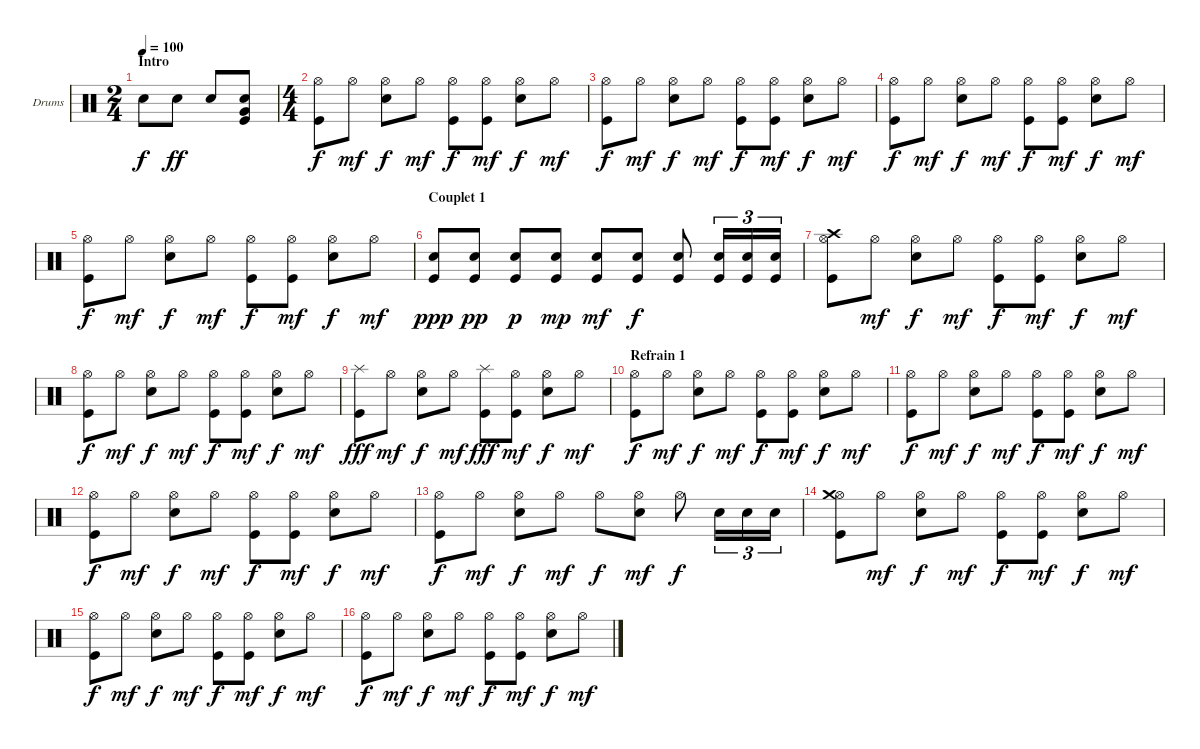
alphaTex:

\bracketExtendMode groupsimilarinstruments
\firstSystemTrackNameOrientation horizontal
\otherSystemsTrackNameOrientation horizontal
\track ("Drumkit" "Drums") {instrument percussion}
\staff {score}
\articulation defaults
\ts (2 4)
\section ("" "Intro")
\tempo 100
\clef neutral
\ks c "Snare (hit) 2".8{dy f} "Snare (hit) 2".8{dy ff} "Snare (hit) 2".8
("Snare (hit) 2" "Very Low Tom (hit)" "Kick (hit)").8 |
\ts (4 4)
("Hi-Hat (open)" "Kick (hit)").8{dy f} "Hi-Hat (open)".8{dy mf} ("Hi-Hat (open)" "Snare (hit) 2").8{dy f} "Hi-Hat (open)".8{dy mf} ("Hi-Hat (open)" "Kick (hit)").8{dy f} ("Hi-Hat (open)" "Kick (hit)").8{dy mf} ("Hi-Hat (open)" "Snare (hit) 2").8{dy f} "Hi-Hat (open)".8{dy mf} |
("Hi-Hat (open)" "Kick (hit)").8{dy f} "Hi-Hat (open)".8{dy mf} ("Hi-Hat (open)" "Snare (hit) 2").8{dy f} "Hi-Hat (open)".8{dy mf} ("Hi-Hat (open)" "Kick (hit)").8{dy f} ("Hi-Hat (open)" "Kick (hit)").8{dy mf} ("Hi-Hat (open)" "Snare (hit) 2").8{dy f} "Hi-Hat (open)".8{dy mf} |
("Hi-Hat (open)" "Kick (hit)").8{dy f} "Hi-Hat (open)".8{dy mf} ("Hi-Hat (open)" "Snare (hit) 2").8{dy f} "Hi-Hat (open)".8{dy mf} ("Hi-Hat (open)" "Kick (hit)").8{dy f} ("Hi-Hat (open)" "Kick (hit)").8{dy mf} ("Hi-Hat (open)" "Snare (hit) 2").8{dy f} "Hi-Hat (open)".8{dy mf} |
("Hi-Hat (open)" "Kick (hit)").8{dy f} "Hi-Hat (open)".8{dy mf} ("Hi-Hat (open)" "Snare (hit) 2").8{dy f} "Hi-Hat (open)".8{dy mf} ("Hi-Hat (open)" "Kick (hit)").8{dy f} ("Hi-Hat (open)" "Kick (hit)").8{dy mf} ("Hi-Hat (open)" "Snare (hit) 2").8{dy f} "Hi-Hat (open)".8{dy mf} |
\section ("" "Couplet 1")
("Snare (hit) 2" "Kick (hit)").8{dy ppp} ("Snare (hit) 2" "Kick (hit)").8{dy pp} ("Snare (hit) 2" "Kick (hit)").8{dy p} ("Snare (hit) 2" "Kick (hit)").8{dy mp} ("Snare (hit) 2" "Kick (hit)").8{dy mf} ("Snare (hit) 2" "Kick (hit)").8{dy f} ("Snare (hit) 2" "Kick (hit)").8 ("Snare (hit) 2" "Kick (hit)").16{tu (3 2)} ("Snare (hit) 2" "Kick (hit)").16{tu (3 2)} ("Snare (hit) 2" "Kick (hit)").16{tu (3 2)} |
("Hi-Hat (open)" "Crash high (hit)" "Kick (hit)").8 "Hi-Hat (open)".8{dy mf} ("Hi-Hat (open)" "Snare (hit) 2").8{dy f} "Hi-Hat (open)".8{dy mf} ("Hi-Hat (open)" "Kick (hit)").8{dy f} ("Hi-Hat (open)" "Kick (hit)").8{dy mf} ("Hi-Hat (open)" "Snare (hit) 2").8{dy f} "Hi-Hat (open)".8{dy mf} |
("Hi-Hat (open)" "Kick (hit)").8{dy f} "Hi-Hat (open)".8{dy mf} ("Hi-Hat (open)" "Snare (hit) 2").8{dy f} "Hi-Hat (open)".8{dy mf} ("Hi-Hat (open)" "Kick (hit)").8{dy f} ("Hi-Hat (open)" "Kick (hit)").8{dy mf} ("Hi-Hat (open)" "Snare (hit) 2").8{dy f} "Hi-Hat (open)".8{dy mf} |
("Splash (hit)" "Kick (hit)").8{dy fff} "Hi-Hat (open)".8{dy mf} ("Hi-Hat (open)" "Snare (hit) 2").8{dy f} "Hi-Hat (open)".8{dy mf} ("Splash (hit)" "Kick (hit)").8{dy fff} ("Hi-Hat (open)" "Kick (hit)").8{dy mf} ("Hi-Hat (open)" "Snare (hit) 2").8{dy f} "Hi-Hat (open)".8{dy mf} |
\section ("" "Refrain 1")
("Hi-Hat (open)" "Kick (hit)").8{dy f} "Hi-Hat (open)".8{dy mf} ("Hi-Hat (open)" "Snare (hit) 2").8{dy f} "Hi-Hat (open)".8{dy mf} ("Hi-Hat (open)" "Kick (hit)").8{dy f} ("Hi-Hat (open)" "Kick (hit)").8{dy mf} ("Hi-Hat (open)" "Snare (hit) 2").8{dy f} "Hi-Hat (open)".8{dy mf} |
("Hi-Hat (open)" "Kick (hit)").8{dy f} "Hi-Hat (open)".8{dy mf} ("Hi-Hat (open)" "Snare (hit) 2").8{dy f} "Hi-Hat (open)".8{dy mf} ("Hi-Hat (open)" "Kick (hit)").8{dy f} ("Hi-Hat (open)" "Kick (hit)").8{dy mf} ("Hi-Hat (open)" "Snare (hit) 2").8{dy f} "Hi-Hat (open)".8{dy mf} |
("Hi-Hat (open)" "Kick (hit)").8{dy f} "Hi-Hat (open)".8{dy mf} ("Hi-Hat (open)" "Snare (hit) 2").8{dy f} "Hi-Hat (open)".8{dy mf} ("Hi-Hat (open)" "Kick (hit)").8{dy f} ("Hi-Hat (open)" "Kick (hit)").8{dy mf} ("Hi-Hat (open)" "Snare (hit) 2").8{dy f} "Hi-Hat (open)".8{dy mf} |
("Hi-Hat (open)" "Kick (hit)").8{dy f} "Hi-Hat (open)".8{dy mf} ("Hi-Hat (open)" "Snare (hit) 2").8{dy f} "Hi-Hat (open)".8{dy mf} "Hi-Hat (open)".8{dy f} ("Hi-Hat (open)" "Snare (hit) 2").8{dy mf} "Hi-Hat (open)".8{dy f} "Snare (hit) 2".16{tu (3 2)} "Snare (hit) 2".16{tu (3 2)} "Snare (hit) 2".16{tu (3 2)} |
("Hi-Hat (open)" "Crash medium (hit)" "Kick (hit)").8 "Hi-Hat (open)".8{dy mf} ("Hi-Hat (open)" "Snare (hit) 2").8{dy f} "Hi-Hat (open)".8{dy mf} ("Hi-Hat (open)" "Kick (hit)").8{dy f} ("Hi-Hat (open)" "Kick (hit)").8{dy mf} ("Hi-Hat (open)" "Snare (hit) 2").8{dy f} "Hi-Hat (open)".8{dy mf} |
("Hi-Hat (open)" "Kick (hit)").8{dy f} "Hi-Hat (open)".8{dy mf} ("Hi-Hat (open)" "Snare (hit) 2").8{dy f} "Hi-Hat (open)".8{dy mf} ("Hi-Hat (open)" "Kick (hit)").8{dy f} ("Hi-Hat (open)" "Kick (hit)").8{dy mf} ("Hi-Hat (open)" "Snare (hit) 2").8{dy f} "Hi-Hat (open)".8{dy mf} |
("Hi-Hat (open)" "Kick (hit)").8{dy f} "Hi-Hat (open)".8{dy mf} ("Hi-Hat (open)" "Snare (hit) 2").8{dy f} "Hi-Hat (open)".8{dy mf} ("Hi-Hat (open)" "Kick (hit)").8{dy f} ("Hi-Hat (open)" "Kick (hit)").8{dy mf} ("Hi-Hat (open)" "Snare (hit) 2").8{dy f} "Hi-Hat (open)".8{dy mf}
